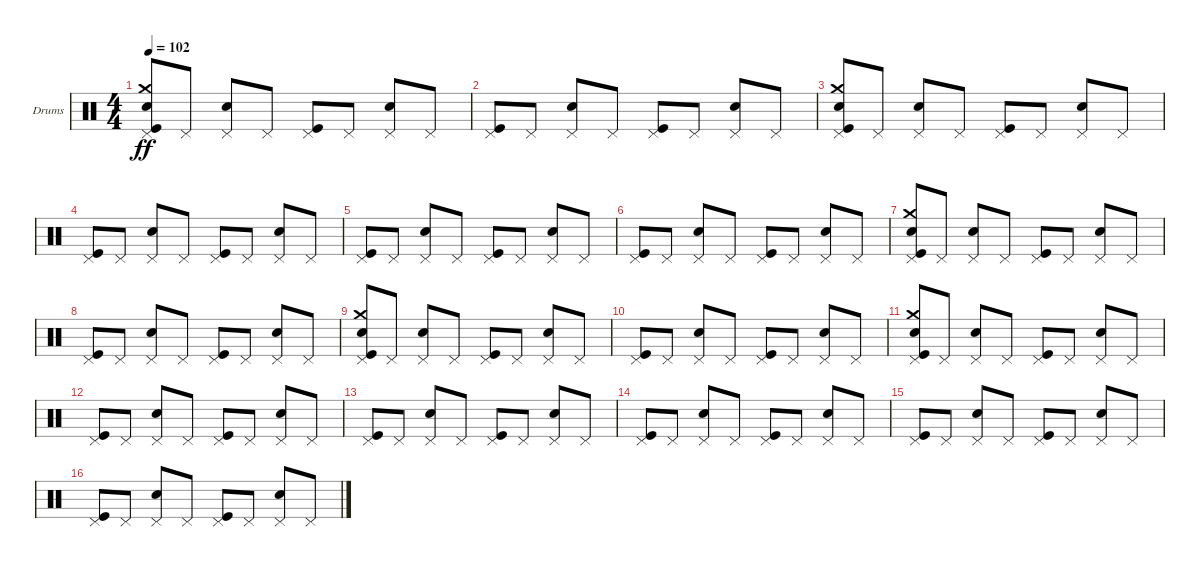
\defaultSystemsLayout 4
\bracketExtendMode groupsimilarinstruments
\firstSystemTrackNameOrientation horizontal
\otherSystemsTrackNameOrientation horizontal
\track ("Е. Кулаков" "Drums") {instrument percussion}
\staff {score}
\articulation defaults
\ts (4 4)
\tempo 102
\clef neutral
\ks c
("Pedal Hi-Hat (hit)" "Kick (hit)" "Crash medium (hit)" "Snare (hit) 2").8{dy ff} "Pedal Hi-Hat (hit)".8 ("Pedal Hi-Hat (hit)" "Snare (hit) 2").8 "Pedal Hi-Hat (hit)".8 ("Pedal Hi-Hat (hit)" "Kick (hit)").8 "Pedal Hi-Hat (hit)".8 ("Pedal Hi-Hat (hit)" "Snare (hit) 2").8 "Pedal Hi-Hat (hit)".8 |
("Pedal Hi-Hat (hit)" "Kick (hit)").8 "Pedal Hi-Hat (hit)".8 ("Pedal Hi-Hat (hit)" "Snare (hit) 2").8 "Pedal Hi-Hat (hit)".8 ("Pedal Hi-Hat (hit)" "Kick (hit)").8 "Pedal Hi-Hat (hit)".8 ("Pedal Hi-Hat (hit)" "Snare (hit) 2").8 "Pedal Hi-Hat (hit)".8 |
("Pedal Hi-Hat (hit)" "Kick (hit)" "Snare (hit) 2" "Crash medium (hit)").8 "Pedal Hi-Hat (hit)".8 ("Pedal Hi-Hat (hit)" "Snare (hit) 2").8 "Pedal Hi-Hat (hit)".8 ("Pedal Hi-Hat (hit)" "Kick (hit)").8 "Pedal Hi-Hat (hit)".8 ("Pedal Hi-Hat (hit)" "Snare (hit) 2").8 "Pedal Hi-Hat (hit)".8 |
("Pedal Hi-Hat (hit)" "Kick (hit)").8 "Pedal Hi-Hat (hit)".8 ("Pedal Hi-Hat (hit)" "Snare (hit) 2").8 "Pedal Hi-Hat (hit)".8 ("Pedal Hi-Hat (hit)" "Kick (hit)").8 "Pedal Hi-Hat (hit)".8 ("Pedal Hi-Hat (hit)" "Snare (hit) 2").8 "Pedal Hi-Hat (hit)".8 |
("Pedal Hi-Hat (hit)" "Kick (hit)").8 "Pedal Hi-Hat (hit)".8 ("Pedal Hi-Hat (hit)" "Snare (hit) 2").8 "Pedal Hi-Hat (hit)".8 ("Pedal Hi-Hat (hit)" "Kick (hit)").8 "Pedal Hi-Hat (hit)".8 ("Pedal Hi-Hat (hit)" "Snare (hit) 2").8 "Pedal Hi-Hat (hit)".8 |
("Pedal Hi-Hat (hit)" "Kick (hit)").8 "Pedal Hi-Hat (hit)".8 ("Pedal Hi-Hat (hit)" "Snare (hit) 2").8 "Pedal Hi-Hat (hit)".8 ("Pedal Hi-Hat (hit)" "Kick (hit)").8 "Pedal Hi-Hat (hit)".8 ("Pedal Hi-Hat (hit)" "Snare (hit) 2").8 "Pedal Hi-Hat (hit)".8 |
("Pedal Hi-Hat (hit)" "Kick (hit)" "Crash medium (hit)" "Snare (hit) 2").8 "Pedal Hi-Hat (hit)".8 ("Pedal Hi-Hat (hit)" "Snare (hit) 2").8 "Pedal Hi-Hat (hit)".8 ("Pedal Hi-Hat (hit)" "Kick (hit)").8 "Pedal Hi-Hat (hit)".8 ("Pedal Hi-Hat (hit)" "Snare (hit) 2").8 "Pedal Hi-Hat (hit)".8 |
("Pedal Hi-Hat (hit)" "Kick (hit)").8 "Pedal Hi-Hat (hit)".8 ("Pedal Hi-Hat (hit)" "Snare (hit) 2").8 "Pedal Hi-Hat (hit)".8 ("Pedal Hi-Hat (hit)" "Kick (hit)").8 "Pedal Hi-Hat (hit)".8 ("Pedal Hi-Hat (hit)" "Snare (hit) 2").8 "Pedal Hi-Hat (hit)".8 |
("Pedal Hi-Hat (hit)" "Kick (hit)" "Crash medium (hit)" "Snare (hit) 2").8 "Pedal Hi-Hat (hit)".8 ("Pedal Hi-Hat (hit)" "Snare (hit) 2").8 "Pedal Hi-Hat (hit)".8 ("Pedal Hi-Hat (hit)" "Kick (hit)").8 "Pedal Hi-Hat (hit)".8 ("Pedal Hi-Hat (hit)" "Snare (hit) 2").8 "Pedal Hi-Hat (hit)".8 |
("Pedal Hi-Hat (hit)" "Kick (hit)").8 "Pedal Hi-Hat (hit)".8 ("Pedal Hi-Hat (hit)" "Snare (hit) 2").8 "Pedal Hi-Hat (hit)".8 ("Pedal Hi-Hat (hit)" "Kick (hit)").8 "Pedal Hi-Hat (hit)".8 ("Pedal Hi-Hat (hit)" "Snare (hit) 2").8 "Pedal Hi-Hat (hit)".8 |
("Pedal Hi-Hat (hit)" "Kick (hit)" "Snare (hit) 2" "Crash medium (hit)").8 "Pedal Hi-Hat (hit)".8 ("Pedal Hi-Hat (hit)" "Snare (hit) 2").8 "Pedal Hi-Hat (hit)".8 ("Pedal Hi-Hat (hit)" "Kick (hit)").8 "Pedal Hi-Hat (hit)".8 ("Pedal Hi-Hat (hit)" "Snare (hit) 2").8 "Pedal Hi-Hat (hit)".8 |
("Pedal Hi-Hat (hit)" "Kick (hit)").8 "Pedal Hi-Hat (hit)".8 ("Pedal Hi-Hat (hit)" "Snare (hit) 2").8 "Pedal Hi-Hat (hit)".8 ("Pedal Hi-Hat (hit)" "Kick (hit)").8 "Pedal Hi-Hat (hit)".8 ("Pedal Hi-Hat (hit)" "Snare (hit) 2").8 "Pedal Hi-Hat (hit)".8 |
("Pedal Hi-Hat (hit)" "Kick (hit)").8 "Pedal Hi-Hat (hit)".8 ("Pedal Hi-Hat (hit)" "Snare (hit) 2").8 "Pedal Hi-Hat (hit)".8 ("Pedal Hi-Hat (hit)" "Kick (hit)").8 "Pedal Hi-Hat (hit)".8 ("Pedal Hi-Hat (hit)" "Snare (hit) 2").8 "Pedal Hi-Hat (hit)".8 |
("Pedal Hi-Hat (hit)" "Kick (hit)").8 "Pedal Hi-Hat (hit)".8 ("Pedal Hi-Hat (hit)" "Snare (hit) 2").8 "Pedal Hi-Hat (hit)".8 ("Pedal Hi-Hat (hit)" "Kick (hit)").8 "Pedal Hi-Hat (hit)".8 ("Pedal Hi-Hat (hit)" "Snare (hit) 2").8 "Pedal Hi-Hat (hit)".8 |
("Pedal Hi-Hat (hit)" "Kick (hit)").8 "Pedal Hi-Hat (hit)".8 ("Pedal Hi-Hat (hit)" "Snare (hit) 2").8 "Pedal Hi-Hat (hit)".8 ("Pedal Hi-Hat (hit)" "Kick (hit)").8 "Pedal Hi-Hat (hit)".8 ("Pedal Hi-Hat (hit)" "Snare (hit) 2").8 "Pedal Hi-Hat (hit)".8 |
("Pedal Hi-Hat (hit)" "Kick (hit)").8 "Pedal Hi-Hat (hit)".8 ("Pedal Hi-Hat (hit)" "Snare (hit) 2").8 "Pedal Hi-Hat (hit)".8 ("Pedal Hi-Hat (hit)" "Kick (hit)").8 "Pedal Hi-Hat (hit)".8 ("Pedal Hi-Hat (hit)" "Snare (hit) 2").8 "Pedal Hi-Hat (hit)".8
